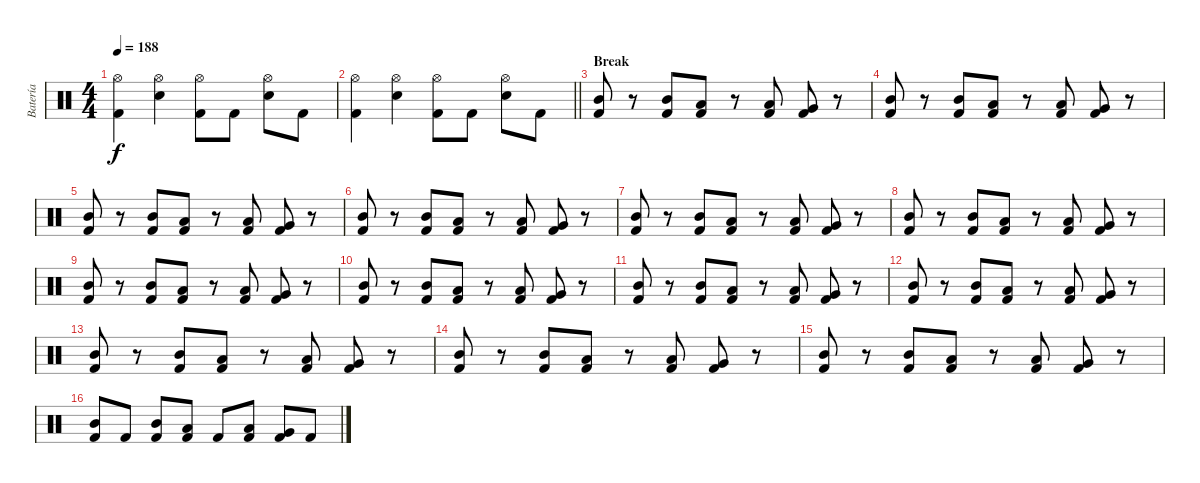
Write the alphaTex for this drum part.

\track ("Batería" "Batería") {instrument percussion}
\staff {score}
\articulation defaults
\ts (4 4)
\tempo 188
\clef neutral
\ks c
("Hi-Hat (open)" "Kick (hit) 2").4{dy f} ("Hi-Hat (open)" "Electric Snare (hit)").4 ("Hi-Hat (open)" "Kick (hit) 2").8 "Kick (hit) 2".8 ("Hi-Hat (open)" "Electric Snare (hit)").8 "Kick (hit) 2".8 |
\barLineRight lightlight
("Hi-Hat (open)" "Kick (hit) 2").4 ("Hi-Hat (open)" "Electric Snare (hit)").4 ("Hi-Hat (open)" "Kick (hit) 2").8 "Kick (hit) 2".8 ("Hi-Hat (open)" "Electric Snare (hit)").8 "Kick (hit) 2".8 |
\section ("" "Break")
("Mid Tom (hit)" "Kick (hit) 2").8 r.8 ("Mid Tom (hit)" "Kick (hit) 2").8 ("Low Tom (hit)" "Kick (hit) 2").8 r.8 ("Low Tom (hit)" "Kick (hit) 2").8 ("Very Low Tom (hit)" "Kick (hit) 2").8 r.8 |
("Mid Tom (hit)" "Kick (hit) 2").8 r.8 ("Mid Tom (hit)" "Kick (hit) 2").8 ("Low Tom (hit)" "Kick (hit) 2").8 r.8 ("Low Tom (hit)" "Kick (hit) 2").8 ("Very Low Tom (hit)" "Kick (hit) 2").8 r.8 |
("Mid Tom (hit)" "Kick (hit) 2").8 r.8 ("Mid Tom (hit)" "Kick (hit) 2").8 ("Low Tom (hit)" "Kick (hit) 2").8 r.8 ("Low Tom (hit)" "Kick (hit) 2").8 ("Very Low Tom (hit)" "Kick (hit) 2").8 r.8 |
("Mid Tom (hit)" "Kick (hit) 2").8 r.8 ("Mid Tom (hit)" "Kick (hit) 2").8 ("Low Tom (hit)" "Kick (hit) 2").8 r.8 ("Low Tom (hit)" "Kick (hit) 2").8 ("Very Low Tom (hit)" "Kick (hit) 2").8 r.8 |
("Mid Tom (hit)" "Kick (hit) 2").8 r.8 ("Mid Tom (hit)" "Kick (hit) 2").8 ("Low Tom (hit)" "Kick (hit) 2").8 r.8 ("Low Tom (hit)" "Kick (hit) 2").8 ("Very Low Tom (hit)" "Kick (hit) 2").8 r.8 |
("Mid Tom (hit)" "Kick (hit) 2").8 r.8 ("Mid Tom (hit)" "Kick (hit) 2").8 ("Low Tom (hit)" "Kick (hit) 2").8 r.8 ("Low Tom (hit)" "Kick (hit) 2").8 ("Very Low Tom (hit)" "Kick (hit) 2").8 r.8 |
("Mid Tom (hit)" "Kick (hit) 2").8 r.8 ("Mid Tom (hit)" "Kick (hit) 2").8 ("Low Tom (hit)" "Kick (hit) 2").8 r.8 ("Low Tom (hit)" "Kick (hit) 2").8 ("Very Low Tom (hit)" "Kick (hit) 2").8 r.8 |
("Mid Tom (hit)" "Kick (hit) 2").8 r.8 ("Mid Tom (hit)" "Kick (hit) 2").8 ("Low Tom (hit)" "Kick (hit) 2").8 r.8 ("Low Tom (hit)" "Kick (hit) 2").8 ("Very Low Tom (hit)" "Kick (hit) 2").8 r.8 |
("Mid Tom (hit)" "Kick (hit) 2").8 r.8 ("Mid Tom (hit)" "Kick (hit) 2").8 ("Low Tom (hit)" "Kick (hit) 2").8 r.8 ("Low Tom (hit)" "Kick (hit) 2").8 ("Very Low Tom (hit)" "Kick (hit) 2").8 r.8 |
("Mid Tom (hit)" "Kick (hit) 2").8 r.8 ("Mid Tom (hit)" "Kick (hit) 2").8 ("Low Tom (hit)" "Kick (hit) 2").8 r.8 ("Low Tom (hit)" "Kick (hit) 2").8 ("Very Low Tom (hit)" "Kick (hit) 2").8 r.8 |
("Mid Tom (hit)" "Kick (hit) 2").8 r.8 ("Mid Tom (hit)" "Kick (hit) 2").8 ("Low Tom (hit)" "Kick (hit) 2").8 r.8 ("Low Tom (hit)" "Kick (hit) 2").8 ("Very Low Tom (hit)" "Kick (hit) 2").8 r.8 |
("Mid Tom (hit)" "Kick (hit) 2").8 r.8 ("Mid Tom (hit)" "Kick (hit) 2").8 ("Low Tom (hit)" "Kick (hit) 2").8 r.8 ("Low Tom (hit)" "Kick (hit) 2").8 ("Very Low Tom (hit)" "Kick (hit) 2").8 r.8 |
("Mid Tom (hit)" "Kick (hit) 2").8 r.8 ("Mid Tom (hit)" "Kick (hit) 2").8 ("Low Tom (hit)" "Kick (hit) 2").8 r.8 ("Low Tom (hit)" "Kick (hit) 2").8 ("Very Low Tom (hit)" "Kick (hit) 2").8 r.8 |
("Mid Tom (hit)" "Kick (hit) 2").8 "Kick (hit) 2".8 ("Mid Tom (hit)" "Kick (hit) 2").8 ("Low Tom (hit)" "Kick (hit) 2").8 "Kick (hit) 2".8 ("Low Tom (hit)" "Kick (hit) 2").8 ("Very Low Tom (hit)" "Kick (hit) 2").8 "Kick (hit) 2".8
